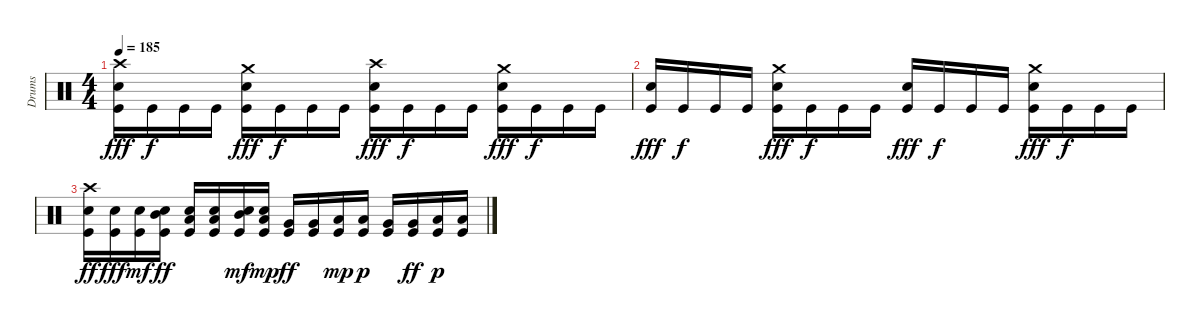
\track ("Drums" "Drums") {instrument percussion}
\staff {score}
\articulation defaults
\ts (4 4)
\tempo 185
\clef neutral
\ks c
("Crash high (hit)" "Kick (hit)" "Electric Snare (hit)").16{dy fff} "Kick (hit)".16{dy f} "Kick (hit)".16 "Kick (hit)".16 ("Crash medium (hit)" "Kick (hit)" "Electric Snare (hit)").16{dy fff} "Kick (hit)".16{dy f} "Kick (hit)".16 "Kick (hit)".16 ("Electric Snare (hit)" "Kick (hit)" "Crash high (hit)").16{dy fff} "Kick (hit)".16{dy f} "Kick (hit)".16 "Kick (hit)".16 ("Crash medium (hit)" "Kick (hit)" "Electric Snare (hit)").16{dy fff} "Kick (hit)".16{dy f} "Kick (hit)".16 "Kick (hit)".16 |
("Electric Snare (hit)" "Kick (hit)").16{dy fff} "Kick (hit)".16{dy f} "Kick (hit)".16 "Kick (hit)".16 ("Crash medium (hit)" "Kick (hit)" "Electric Snare (hit)").16{dy fff} "Kick (hit)".16{dy f} "Kick (hit)".16 "Kick (hit)".16 ("Kick (hit)" "Electric Snare (hit)").16{dy fff} "Kick (hit)".16{dy f} "Kick (hit)".16 "Kick (hit)".16 ("Electric Snare (hit)" "Kick (hit)" "Crash medium (hit)").16{dy fff} "Kick (hit)".16{dy f} "Kick (hit)".16 "Kick (hit)".16 |
("Crash high (hit)" "Electric Snare (hit)" "Kick (hit)").16{dy ff} ("Kick (hit)" "Electric Snare (hit)").16{dy fff} ("Electric Snare (hit)" "Kick (hit)").16{dy mf} ("Kick (hit)" "Electric Snare (hit)" "Mid Tom (hit)").16{dy ff} ("Kick (hit)" "Electric Snare (hit)" "Low Tom (hit)").16 ("Kick (hit)" "Electric Snare (hit)" "Low Tom (hit)").16 ("Electric Snare (hit)" "Kick (hit)" "Mid Tom (hit)").16{dy mf} ("Electric Snare (hit)" "Kick (hit)" "Low Tom (hit)").16{dy mp} ("Kick (hit)" "Very Low Tom (hit)").16{dy ff} ("Kick (hit)" "Very Low Tom (hit)").16 ("Kick (hit)" "Low Tom (hit)").16{dy mp} ("Kick (hit)" "Low Tom (hit)").16{dy p} ("Kick (hit)" "Very Low Tom (hit)").16 ("Kick (hit)" "Very Low Tom (hit)").16{dy ff} ("Kick (hit)" "Low Floor Tom (hit)").16{dy p} ("Kick (hit)" "Low Floor Tom (hit)").16
